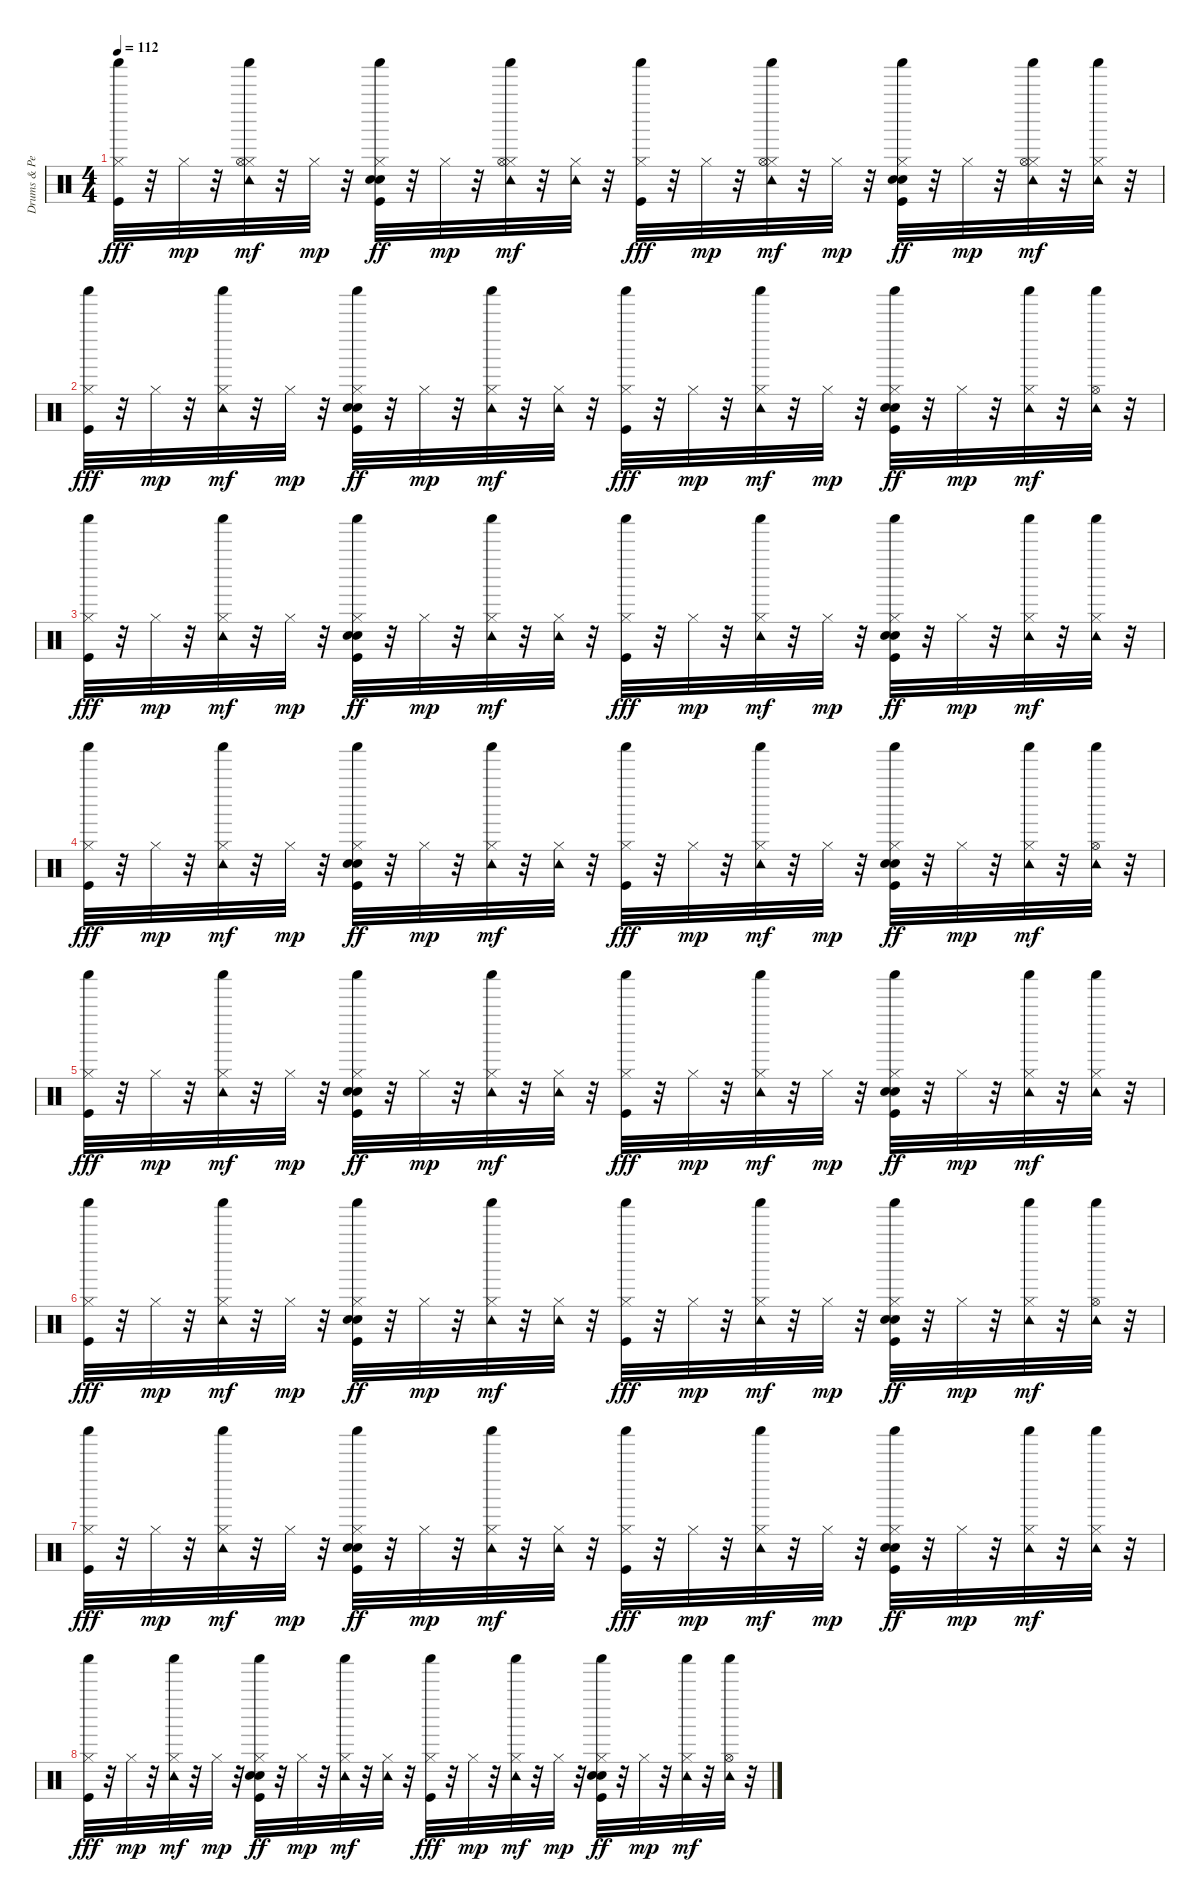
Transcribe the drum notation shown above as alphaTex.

\track ("Drums & Percussion" "Drums & Pe") {instrument percussion}
\staff {score}
\articulation defaults
\ts (4 4)
\tempo 112
\clef neutral
\ks c
("Shaker (hit)" "Hi-Hat (closed)" "Kick (hit)").32{dy fff} r.32 "Hi-Hat (closed)".32{dy mp} r.32 ("Shaker (hit)" "Hi-Hat (closed)" "Hi-Hat (open)" "Tambourine (hit)").32{dy mf} r.32 "Hi-Hat (closed)".32{dy mp} r.32 ("Shaker (hit)" "Snare (hit) 2" "Hi-Hat (closed)" "Hand Clap (hit)" "Kick (hit)").32{dy ff} r.32 "Hi-Hat (closed)".32{dy mp} r.32 ("Shaker (hit)" "Hi-Hat (closed)" "Hi-Hat (open)" "Tambourine (hit)").32{dy mf} r.32 ("Hi-Hat (closed)" "Tambourine (hit)").32 r.32 ("Shaker (hit)" "Hi-Hat (closed)" "Kick (hit)").32{dy fff} r.32 "Hi-Hat (closed)".32{dy mp} r.32 ("Shaker (hit)" "Hi-Hat (closed)" "Hi-Hat (open)" "Tambourine (hit)").32{dy mf} r.32 "Hi-Hat (closed)".32{dy mp} r.32 ("Shaker (hit)" "Snare (hit) 2" "Hi-Hat (closed)" "Hand Clap (hit)" "Kick (hit)").32{dy ff} r.32 "Hi-Hat (closed)".32{dy mp} r.32 ("Shaker (hit)" "Hi-Hat (closed)" "Hi-Hat (open)" "Tambourine (hit)").32{dy mf} r.32 ("Shaker (hit)" "Hi-Hat (closed)" "Tambourine (hit)").32 r.32 |
("Shaker (hit)" "Hi-Hat (closed)" "Kick (hit)").32{dy fff} r.32 "Hi-Hat (closed)".32{dy mp} r.32 ("Shaker (hit)" "Hi-Hat (closed)" "Tambourine (hit)").32{dy mf} r.32 "Hi-Hat (closed)".32{dy mp} r.32 ("Shaker (hit)" "Snare (hit) 2" "Hi-Hat (closed)" "Hand Clap (hit)" "Kick (hit)").32{dy ff} r.32 "Hi-Hat (closed)".32{dy mp} r.32 ("Shaker (hit)" "Hi-Hat (closed)" "Tambourine (hit)").32{dy mf} r.32 ("Hi-Hat (closed)" "Tambourine (hit)").32 r.32 ("Shaker (hit)" "Hi-Hat (closed)" "Kick (hit)").32{dy fff} r.32 "Hi-Hat (closed)".32{dy mp} r.32 ("Shaker (hit)" "Hi-Hat (closed)" "Tambourine (hit)").32{dy mf} r.32 "Hi-Hat (closed)".32{dy mp} r.32 ("Shaker (hit)" "Snare (hit) 2" "Hi-Hat (closed)" "Hand Clap (hit)" "Kick (hit)").32{dy ff} r.32 "Hi-Hat (closed)".32{dy mp} r.32 ("Shaker (hit)" "Hi-Hat (closed)" "Tambourine (hit)").32{dy mf} r.32 ("Hi-Hat (open)" "Shaker (hit)" "Tambourine (hit)").32 r.32 |
("Shaker (hit)" "Hi-Hat (closed)" "Kick (hit)").32{dy fff} r.32 "Hi-Hat (closed)".32{dy mp} r.32 ("Shaker (hit)" "Hi-Hat (closed)" "Tambourine (hit)").32{dy mf} r.32 "Hi-Hat (closed)".32{dy mp} r.32 ("Shaker (hit)" "Snare (hit) 2" "Hi-Hat (closed)" "Hand Clap (hit)" "Kick (hit)").32{dy ff} r.32 "Hi-Hat (closed)".32{dy mp} r.32 ("Shaker (hit)" "Hi-Hat (closed)" "Tambourine (hit)").32{dy mf} r.32 ("Hi-Hat (closed)" "Tambourine (hit)").32 r.32 ("Shaker (hit)" "Hi-Hat (closed)" "Kick (hit)").32{dy fff} r.32 "Hi-Hat (closed)".32{dy mp} r.32 ("Shaker (hit)" "Hi-Hat (closed)" "Tambourine (hit)").32{dy mf} r.32 "Hi-Hat (closed)".32{dy mp} r.32 ("Shaker (hit)" "Snare (hit) 2" "Hi-Hat (closed)" "Hand Clap (hit)" "Kick (hit)").32{dy ff} r.32 "Hi-Hat (closed)".32{dy mp} r.32 ("Shaker (hit)" "Hi-Hat (closed)" "Tambourine (hit)").32{dy mf} r.32 ("Shaker (hit)" "Hi-Hat (closed)" "Tambourine (hit)").32 r.32 |
("Shaker (hit)" "Hi-Hat (closed)" "Kick (hit)").32{dy fff} r.32 "Hi-Hat (closed)".32{dy mp} r.32 ("Shaker (hit)" "Hi-Hat (closed)" "Tambourine (hit)").32{dy mf} r.32 "Hi-Hat (closed)".32{dy mp} r.32 ("Shaker (hit)" "Snare (hit) 2" "Hi-Hat (closed)" "Hand Clap (hit)" "Kick (hit)").32{dy ff} r.32 "Hi-Hat (closed)".32{dy mp} r.32 ("Shaker (hit)" "Hi-Hat (closed)" "Tambourine (hit)").32{dy mf} r.32 ("Hi-Hat (closed)" "Tambourine (hit)").32 r.32 ("Shaker (hit)" "Hi-Hat (closed)" "Kick (hit)").32{dy fff} r.32 "Hi-Hat (closed)".32{dy mp} r.32 ("Shaker (hit)" "Hi-Hat (closed)" "Tambourine (hit)").32{dy mf} r.32 "Hi-Hat (closed)".32{dy mp} r.32 ("Shaker (hit)" "Snare (hit) 2" "Hi-Hat (closed)" "Hand Clap (hit)" "Kick (hit)").32{dy ff} r.32 "Hi-Hat (closed)".32{dy mp} r.32 ("Shaker (hit)" "Hi-Hat (closed)" "Tambourine (hit)").32{dy mf} r.32 ("Hi-Hat (open)" "Shaker (hit)" "Tambourine (hit)").32 r.32 |
("Shaker (hit)" "Hi-Hat (closed)" "Kick (hit)").32{dy fff} r.32 "Hi-Hat (closed)".32{dy mp} r.32 ("Shaker (hit)" "Hi-Hat (closed)" "Tambourine (hit)").32{dy mf} r.32 "Hi-Hat (closed)".32{dy mp} r.32 ("Shaker (hit)" "Snare (hit) 2" "Hi-Hat (closed)" "Hand Clap (hit)" "Kick (hit)").32{dy ff} r.32 "Hi-Hat (closed)".32{dy mp} r.32 ("Shaker (hit)" "Hi-Hat (closed)" "Tambourine (hit)").32{dy mf} r.32 ("Hi-Hat (closed)" "Tambourine (hit)").32 r.32 ("Shaker (hit)" "Hi-Hat (closed)" "Kick (hit)").32{dy fff} r.32 "Hi-Hat (closed)".32{dy mp} r.32 ("Shaker (hit)" "Hi-Hat (closed)" "Tambourine (hit)").32{dy mf} r.32 "Hi-Hat (closed)".32{dy mp} r.32 ("Shaker (hit)" "Snare (hit) 2" "Hi-Hat (closed)" "Hand Clap (hit)" "Kick (hit)").32{dy ff} r.32 "Hi-Hat (closed)".32{dy mp} r.32 ("Shaker (hit)" "Hi-Hat (closed)" "Tambourine (hit)").32{dy mf} r.32 ("Shaker (hit)" "Hi-Hat (closed)" "Tambourine (hit)").32 r.32 |
("Shaker (hit)" "Hi-Hat (closed)" "Kick (hit)").32{dy fff} r.32 "Hi-Hat (closed)".32{dy mp} r.32 ("Shaker (hit)" "Hi-Hat (closed)" "Tambourine (hit)").32{dy mf} r.32 "Hi-Hat (closed)".32{dy mp} r.32 ("Shaker (hit)" "Snare (hit) 2" "Hi-Hat (closed)" "Hand Clap (hit)" "Kick (hit)").32{dy ff} r.32 "Hi-Hat (closed)".32{dy mp} r.32 ("Shaker (hit)" "Hi-Hat (closed)" "Tambourine (hit)").32{dy mf} r.32 ("Hi-Hat (closed)" "Tambourine (hit)").32 r.32 ("Shaker (hit)" "Hi-Hat (closed)" "Kick (hit)").32{dy fff} r.32 "Hi-Hat (closed)".32{dy mp} r.32 ("Shaker (hit)" "Hi-Hat (closed)" "Tambourine (hit)").32{dy mf} r.32 "Hi-Hat (closed)".32{dy mp} r.32 ("Shaker (hit)" "Snare (hit) 2" "Hi-Hat (closed)" "Hand Clap (hit)" "Kick (hit)").32{dy ff} r.32 "Hi-Hat (closed)".32{dy mp} r.32 ("Shaker (hit)" "Hi-Hat (closed)" "Tambourine (hit)").32{dy mf} r.32 ("Hi-Hat (open)" "Shaker (hit)" "Tambourine (hit)").32 r.32 |
("Shaker (hit)" "Hi-Hat (closed)" "Kick (hit)").32{dy fff} r.32 "Hi-Hat (closed)".32{dy mp} r.32 ("Shaker (hit)" "Hi-Hat (closed)" "Tambourine (hit)").32{dy mf} r.32 "Hi-Hat (closed)".32{dy mp} r.32 ("Shaker (hit)" "Snare (hit) 2" "Hi-Hat (closed)" "Hand Clap (hit)" "Kick (hit)").32{dy ff} r.32 "Hi-Hat (closed)".32{dy mp} r.32 ("Shaker (hit)" "Hi-Hat (closed)" "Tambourine (hit)").32{dy mf} r.32 ("Hi-Hat (closed)" "Tambourine (hit)").32 r.32 ("Shaker (hit)" "Hi-Hat (closed)" "Kick (hit)").32{dy fff} r.32 "Hi-Hat (closed)".32{dy mp} r.32 ("Shaker (hit)" "Hi-Hat (closed)" "Tambourine (hit)").32{dy mf} r.32 "Hi-Hat (closed)".32{dy mp} r.32 ("Shaker (hit)" "Snare (hit) 2" "Hi-Hat (closed)" "Hand Clap (hit)" "Kick (hit)").32{dy ff} r.32 "Hi-Hat (closed)".32{dy mp} r.32 ("Shaker (hit)" "Hi-Hat (closed)" "Tambourine (hit)").32{dy mf} r.32 ("Shaker (hit)" "Hi-Hat (closed)" "Tambourine (hit)").32 r.32 |
("Shaker (hit)" "Hi-Hat (closed)" "Kick (hit)").32{dy fff} r.32 "Hi-Hat (closed)".32{dy mp} r.32 ("Shaker (hit)" "Hi-Hat (closed)" "Tambourine (hit)").32{dy mf} r.32 "Hi-Hat (closed)".32{dy mp} r.32 ("Shaker (hit)" "Snare (hit) 2" "Hi-Hat (closed)" "Hand Clap (hit)" "Kick (hit)").32{dy ff} r.32 "Hi-Hat (closed)".32{dy mp} r.32 ("Shaker (hit)" "Hi-Hat (closed)" "Tambourine (hit)").32{dy mf} r.32 ("Hi-Hat (closed)" "Tambourine (hit)").32 r.32 ("Shaker (hit)" "Hi-Hat (closed)" "Kick (hit)").32{dy fff} r.32 "Hi-Hat (closed)".32{dy mp} r.32 ("Shaker (hit)" "Hi-Hat (closed)" "Tambourine (hit)").32{dy mf} r.32 "Hi-Hat (closed)".32{dy mp} r.32 ("Shaker (hit)" "Snare (hit) 2" "Hi-Hat (closed)" "Hand Clap (hit)" "Kick (hit)").32{dy ff} r.32 "Hi-Hat (closed)".32{dy mp} r.32 ("Shaker (hit)" "Hi-Hat (closed)" "Tambourine (hit)").32{dy mf} r.32 ("Hi-Hat (open)" "Shaker (hit)" "Tambourine (hit)").32 r.32
